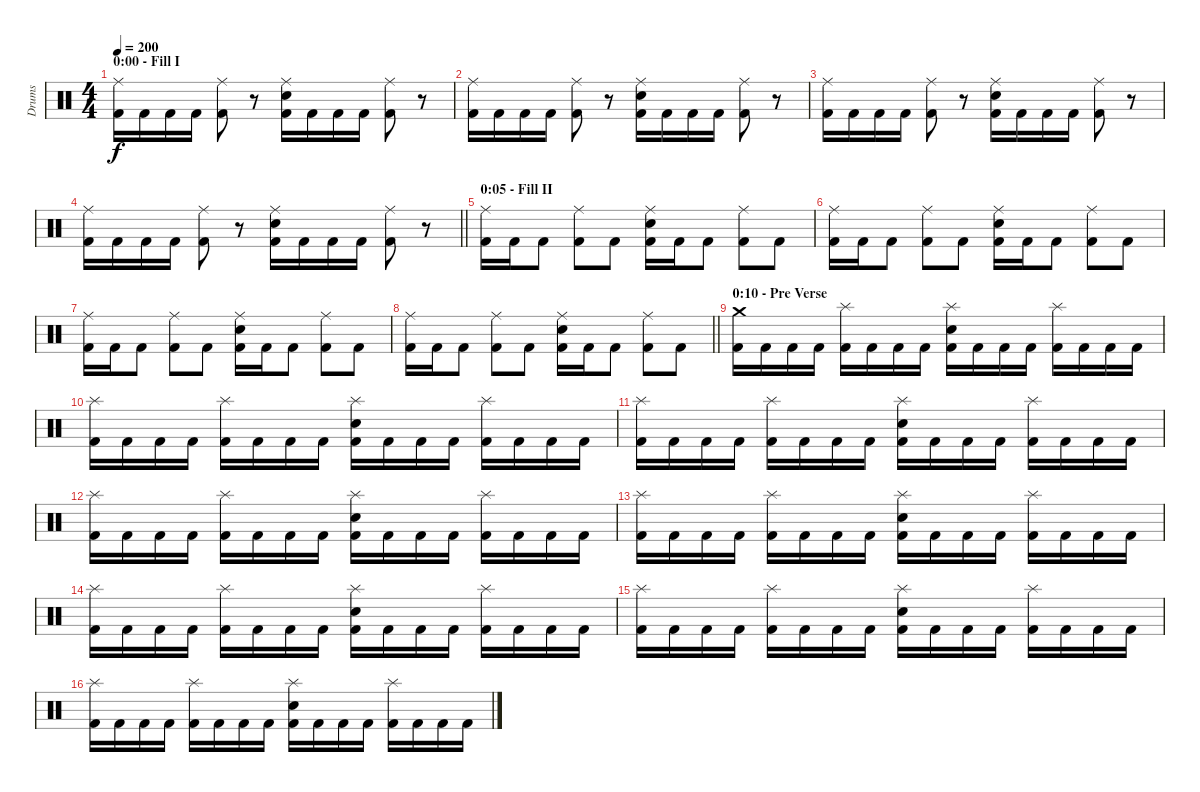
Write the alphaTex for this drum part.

\track ("Drums" "Drums") {instrument percussion}
\staff {score}
\articulation defaults
\ts (4 4)
\section ("" "0:00 - Fill I")
\tempo 200
\clef neutral
\ks c
("Ride (middle)" "Kick (hit) 2").16{dy f} "Kick (hit) 2".16 "Kick (hit) 2".16 "Kick (hit) 2".16 ("Ride (middle)" "Kick (hit) 2").8 r.8 ("Ride (middle)" "Electric Snare (hit)" "Kick (hit) 2").16 "Kick (hit) 2".16 "Kick (hit) 2".16 "Kick (hit) 2".16 ("Ride (middle)" "Kick (hit) 2").8 r.8 |
("Ride (middle)" "Kick (hit) 2").16 "Kick (hit) 2".16 "Kick (hit) 2".16 "Kick (hit) 2".16 ("Ride (middle)" "Kick (hit) 2").8 r.8 ("Ride (middle)" "Electric Snare (hit)" "Kick (hit) 2").16 "Kick (hit) 2".16 "Kick (hit) 2".16 "Kick (hit) 2".16 ("Ride (middle)" "Kick (hit) 2").8 r.8 |
("Ride (middle)" "Kick (hit) 2").16 "Kick (hit) 2".16 "Kick (hit) 2".16 "Kick (hit) 2".16 ("Ride (middle)" "Kick (hit) 2").8 r.8 ("Ride (middle)" "Electric Snare (hit)" "Kick (hit) 2").16 "Kick (hit) 2".16 "Kick (hit) 2".16 "Kick (hit) 2".16 ("Ride (middle)" "Kick (hit) 2").8 r.8 |
\barLineRight lightlight
("Ride (middle)" "Kick (hit) 2").16 "Kick (hit) 2".16 "Kick (hit) 2".16 "Kick (hit) 2".16 ("Ride (middle)" "Kick (hit) 2").8 r.8 ("Ride (middle)" "Electric Snare (hit)" "Kick (hit) 2").16 "Kick (hit) 2".16 "Kick (hit) 2".16 "Kick (hit) 2".16 ("Ride (middle)" "Kick (hit) 2").8 r.8 |
\section ("" "0:05 - Fill II")
("Ride (middle)" "Kick (hit) 2").16 "Kick (hit) 2".16 "Kick (hit) 2".8 ("Ride (middle)" "Kick (hit) 2").8 "Kick (hit) 2".8 ("Ride (middle)" "Electric Snare (hit)" "Kick (hit) 2").16 "Kick (hit) 2".16 "Kick (hit) 2".8 ("Ride (middle)" "Kick (hit) 2").8 "Kick (hit) 2".8 |
("Ride (middle)" "Kick (hit) 2").16 "Kick (hit) 2".16 "Kick (hit) 2".8 ("Ride (middle)" "Kick (hit) 2").8 "Kick (hit) 2".8 ("Ride (middle)" "Electric Snare (hit)" "Kick (hit) 2").16 "Kick (hit) 2".16 "Kick (hit) 2".8 ("Ride (middle)" "Kick (hit) 2").8 "Kick (hit) 2".8 |
("Ride (middle)" "Kick (hit) 2").16 "Kick (hit) 2".16 "Kick (hit) 2".8 ("Ride (middle)" "Kick (hit) 2").8 "Kick (hit) 2".8 ("Ride (middle)" "Electric Snare (hit)" "Kick (hit) 2").16 "Kick (hit) 2".16 "Kick (hit) 2".8 ("Ride (middle)" "Kick (hit) 2").8 "Kick (hit) 2".8 |
\barLineRight lightlight
("Ride (middle)" "Kick (hit) 2").16 "Kick (hit) 2".16 "Kick (hit) 2".8 ("Ride (middle)" "Kick (hit) 2").8 "Kick (hit) 2".8 ("Ride (middle)" "Electric Snare (hit)" "Kick (hit) 2").16 "Kick (hit) 2".16 "Kick (hit) 2".8 ("Ride (middle)" "Kick (hit) 2").8 "Kick (hit) 2".8 |
\section ("" "0:10 - Pre Verse")
("Crash medium (hit)" "Kick (hit) 2").16 "Kick (hit) 2".16 "Kick (hit) 2".16 "Kick (hit) 2".16 ("Splash (hit)" "Kick (hit) 2").16 "Kick (hit) 2".16 "Kick (hit) 2".16 "Kick (hit) 2".16 ("Splash (hit)" "Electric Snare (hit)" "Kick (hit) 2").16 "Kick (hit) 2".16 "Kick (hit) 2".16 "Kick (hit) 2".16 ("Splash (hit)" "Kick (hit) 2").16 "Kick (hit) 2".16 "Kick (hit) 2".16 "Kick (hit) 2".16 |
("Splash (hit)" "Kick (hit) 2").16 "Kick (hit) 2".16 "Kick (hit) 2".16 "Kick (hit) 2".16 ("Splash (hit)" "Kick (hit) 2").16 "Kick (hit) 2".16 "Kick (hit) 2".16 "Kick (hit) 2".16 ("Splash (hit)" "Electric Snare (hit)" "Kick (hit) 2").16 "Kick (hit) 2".16 "Kick (hit) 2".16 "Kick (hit) 2".16 ("Splash (hit)" "Kick (hit) 2").16 "Kick (hit) 2".16 "Kick (hit) 2".16 "Kick (hit) 2".16 |
("Splash (hit)" "Kick (hit) 2").16 "Kick (hit) 2".16 "Kick (hit) 2".16 "Kick (hit) 2".16 ("Splash (hit)" "Kick (hit) 2").16 "Kick (hit) 2".16 "Kick (hit) 2".16 "Kick (hit) 2".16 ("Splash (hit)" "Electric Snare (hit)" "Kick (hit) 2").16 "Kick (hit) 2".16 "Kick (hit) 2".16 "Kick (hit) 2".16 ("Splash (hit)" "Kick (hit) 2").16 "Kick (hit) 2".16 "Kick (hit) 2".16 "Kick (hit) 2".16 |
("Splash (hit)" "Kick (hit) 2").16 "Kick (hit) 2".16 "Kick (hit) 2".16 "Kick (hit) 2".16 ("Splash (hit)" "Kick (hit) 2").16 "Kick (hit) 2".16 "Kick (hit) 2".16 "Kick (hit) 2".16 ("Splash (hit)" "Electric Snare (hit)" "Kick (hit) 2").16 "Kick (hit) 2".16 "Kick (hit) 2".16 "Kick (hit) 2".16 ("Splash (hit)" "Kick (hit) 2").16 "Kick (hit) 2".16 "Kick (hit) 2".16 "Kick (hit) 2".16 |
("Splash (hit)" "Kick (hit) 2").16 "Kick (hit) 2".16 "Kick (hit) 2".16 "Kick (hit) 2".16 ("Splash (hit)" "Kick (hit) 2").16 "Kick (hit) 2".16 "Kick (hit) 2".16 "Kick (hit) 2".16 ("Splash (hit)" "Electric Snare (hit)" "Kick (hit) 2").16 "Kick (hit) 2".16 "Kick (hit) 2".16 "Kick (hit) 2".16 ("Splash (hit)" "Kick (hit) 2").16 "Kick (hit) 2".16 "Kick (hit) 2".16 "Kick (hit) 2".16 |
("Splash (hit)" "Kick (hit) 2").16 "Kick (hit) 2".16 "Kick (hit) 2".16 "Kick (hit) 2".16 ("Splash (hit)" "Kick (hit) 2").16 "Kick (hit) 2".16 "Kick (hit) 2".16 "Kick (hit) 2".16 ("Splash (hit)" "Electric Snare (hit)" "Kick (hit) 2").16 "Kick (hit) 2".16 "Kick (hit) 2".16 "Kick (hit) 2".16 ("Splash (hit)" "Kick (hit) 2").16 "Kick (hit) 2".16 "Kick (hit) 2".16 "Kick (hit) 2".16 |
("Splash (hit)" "Kick (hit) 2").16 "Kick (hit) 2".16 "Kick (hit) 2".16 "Kick (hit) 2".16 ("Splash (hit)" "Kick (hit) 2").16 "Kick (hit) 2".16 "Kick (hit) 2".16 "Kick (hit) 2".16 ("Splash (hit)" "Electric Snare (hit)" "Kick (hit) 2").16 "Kick (hit) 2".16 "Kick (hit) 2".16 "Kick (hit) 2".16 ("Splash (hit)" "Kick (hit) 2").16 "Kick (hit) 2".16 "Kick (hit) 2".16 "Kick (hit) 2".16 |
("Splash (hit)" "Kick (hit) 2").16 "Kick (hit) 2".16 "Kick (hit) 2".16 "Kick (hit) 2".16 ("Splash (hit)" "Kick (hit) 2").16 "Kick (hit) 2".16 "Kick (hit) 2".16 "Kick (hit) 2".16 ("Splash (hit)" "Electric Snare (hit)" "Kick (hit) 2").16 "Kick (hit) 2".16 "Kick (hit) 2".16 "Kick (hit) 2".16 ("Splash (hit)" "Kick (hit) 2").16 "Kick (hit) 2".16 "Kick (hit) 2".16 "Kick (hit) 2".16
